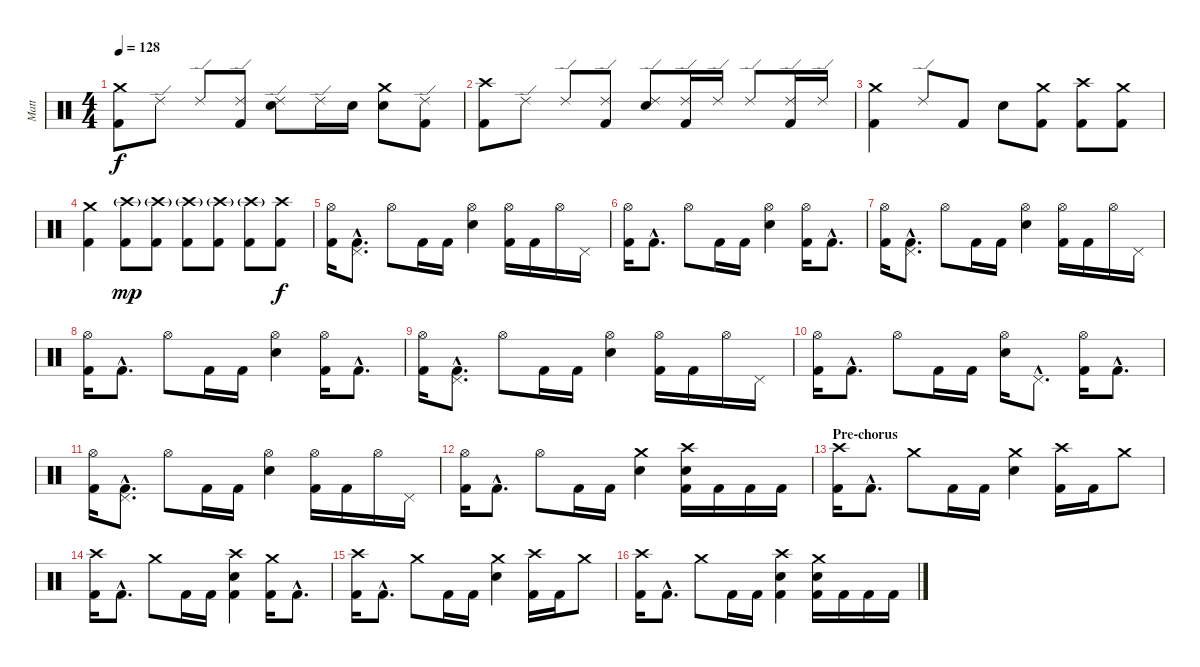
\track ("Matt" "Matt") {instrument percussion}
\staff {score}
\articulation defaults
\ts (4 4)
\tempo 128
\clef neutral
\ks c
("Crash medium (hit)" "Kick (hit) 2").8{dy f} "Ride (edge) 2".8 "Ride (edge) 2".8 ("Ride (edge) 2" "Kick (hit) 2").8 ("Ride (edge) 2" "Electric Snare (hit)").8 "Ride (edge) 2".16 "Electric Snare (hit)".16 ("Crash medium (hit)" "Electric Snare (hit)").8 ("Ride (edge) 2" "Kick (hit) 2").8 |
("Crash high (hit)" "Kick (hit) 2").8 "Ride (edge) 2".8 "Ride (edge) 2".8 ("Ride (edge) 2" "Kick (hit) 2").8 ("Ride (edge) 2" "Electric Snare (hit)").8 ("Ride (edge) 2" "Kick (hit) 2").16 "Ride (edge) 2".16 "Ride (edge) 2".8 ("Ride (edge) 2" "Kick (hit) 2").16 "Ride (edge) 2".16 |
("Crash medium (hit)" "Kick (hit) 2").4 "Ride (edge) 2".8 "Kick (hit) 2".8 "Electric Snare (hit)".8 ("Crash medium (hit)" "Kick (hit) 2").8 ("Crash high (hit)" "Kick (hit) 2").8 ("Crash medium (hit)" "Kick (hit) 2").8 |
("Crash medium (hit)" "Kick (hit) 2").4 ("Crash high (hit)"{g} "Kick (hit) 2").8{dy mp} ("Crash high (hit)"{g} "Kick (hit) 2").8 ("Crash high (hit)"{g} "Kick (hit) 2").8 ("Crash high (hit)"{g} "Kick (hit) 2").8 ("Crash high (hit)"{g} "Kick (hit) 2").8 ("Crash high (hit)" "Kick (hit) 2").8{dy f} |
("Hi-Hat (open)" "Kick (hit) 2").16 ("Pedal Hi-Hat (hit)"{hac} "Kick (hit) 2"{hac}).8{d} "Hi-Hat (open)".8 "Kick (hit) 2".16 "Kick (hit) 2".16 ("Hi-Hat (open)" "Electric Snare (hit)").4 ("Hi-Hat (open)" "Kick (hit) 2").16 "Kick (hit) 2".16 "Hi-Hat (open)".16 "Pedal Hi-Hat (hit)".16 |
("Hi-Hat (open)" "Kick (hit) 2").16 "Kick (hit) 2"{hac}.8{d} "Hi-Hat (open)".8 "Kick (hit) 2".16 "Kick (hit) 2".16 ("Hi-Hat (open)" "Electric Snare (hit)").4 ("Hi-Hat (open)" "Kick (hit) 2").16 "Kick (hit) 2"{hac}.8{d} |
("Hi-Hat (open)" "Kick (hit) 2").16 ("Pedal Hi-Hat (hit)"{hac} "Kick (hit) 2"{hac}).8{d} "Hi-Hat (open)".8 "Kick (hit) 2".16 "Kick (hit) 2".16 ("Hi-Hat (open)" "Electric Snare (hit)").4 ("Hi-Hat (open)" "Kick (hit) 2").16 "Kick (hit) 2".16 "Hi-Hat (open)".16 "Pedal Hi-Hat (hit)".16 |
("Hi-Hat (open)" "Kick (hit) 2").16 "Kick (hit) 2"{hac}.8{d} "Hi-Hat (open)".8 "Kick (hit) 2".16 "Kick (hit) 2".16 ("Hi-Hat (open)" "Electric Snare (hit)").4 ("Hi-Hat (open)" "Kick (hit) 2").16 "Kick (hit) 2"{hac}.8{d} |
("Hi-Hat (open)" "Kick (hit) 2").16 ("Pedal Hi-Hat (hit)"{hac} "Kick (hit) 2"{hac}).8{d} "Hi-Hat (open)".8 "Kick (hit) 2".16 "Kick (hit) 2".16 ("Hi-Hat (open)" "Electric Snare (hit)").4 ("Hi-Hat (open)" "Kick (hit) 2").16 "Kick (hit) 2".16 "Hi-Hat (open)".16 "Pedal Hi-Hat (hit)".16 |
("Hi-Hat (open)" "Kick (hit) 2").16 "Kick (hit) 2"{hac}.8{d} "Hi-Hat (open)".8 "Kick (hit) 2".16 "Kick (hit) 2".16 ("Hi-Hat (open)" "Electric Snare (hit)").16 "Pedal Hi-Hat (hit)"{hac}.8{d} ("Hi-Hat (open)" "Kick (hit) 2").16 "Kick (hit) 2"{hac}.8{d} |
("Hi-Hat (open)" "Kick (hit) 2").16 ("Pedal Hi-Hat (hit)"{hac} "Kick (hit) 2"{hac}).8{d} "Hi-Hat (open)".8 "Kick (hit) 2".16 "Kick (hit) 2".16 ("Hi-Hat (open)" "Electric Snare (hit)").4 ("Hi-Hat (open)" "Kick (hit) 2").16 "Kick (hit) 2".16 "Hi-Hat (open)".16 "Pedal Hi-Hat (hit)".16 |
("Hi-Hat (open)" "Kick (hit) 2").16 "Kick (hit) 2"{hac}.8{d} "Hi-Hat (open)".8 "Kick (hit) 2".16 "Kick (hit) 2".16 ("Crash medium (hit)" "Electric Snare (hit)").4 ("Crash high (hit)" "Electric Snare (hit)" "Kick (hit) 2").16 "Kick (hit) 2".16 "Kick (hit) 2".16 "Kick (hit) 2".16 |
\section ("" "Pre-chorus")
("Crash high (hit)" "Kick (hit) 2").16 "Kick (hit) 2"{hac}.8{d} "Crash medium (hit)".8 "Kick (hit) 2".16 "Kick (hit) 2".16 ("Crash medium (hit)" "Electric Snare (hit)").4 ("Crash high (hit)" "Kick (hit) 2").16 "Kick (hit) 2".16 "Crash medium (hit)".8 |
("Crash high (hit)" "Kick (hit) 2").16 "Kick (hit) 2"{hac}.8{d} "Crash medium (hit)".8 "Kick (hit) 2".16 "Kick (hit) 2".16 ("Crash high (hit)" "Electric Snare (hit)" "Kick (hit) 2").4 ("Crash medium (hit)" "Kick (hit) 2").16 "Kick (hit) 2"{hac}.8{d} |
("Crash high (hit)" "Kick (hit) 2").16 "Kick (hit) 2"{hac}.8{d} "Crash medium (hit)".8 "Kick (hit) 2".16 "Kick (hit) 2".16 ("Crash medium (hit)" "Electric Snare (hit)").4 ("Crash high (hit)" "Kick (hit) 2").16 "Kick (hit) 2".16 "Crash medium (hit)".8 |
("Crash high (hit)" "Kick (hit) 2").16 "Kick (hit) 2"{hac}.8{d} "Crash medium (hit)".8 "Kick (hit) 2".16 "Kick (hit) 2".16 ("Crash high (hit)" "Electric Snare (hit)" "Kick (hit) 2").4 ("Crash medium (hit)" "Electric Snare (hit)" "Kick (hit) 2").16 "Kick (hit) 2".16 "Kick (hit) 2".16 "Kick (hit) 2".16
